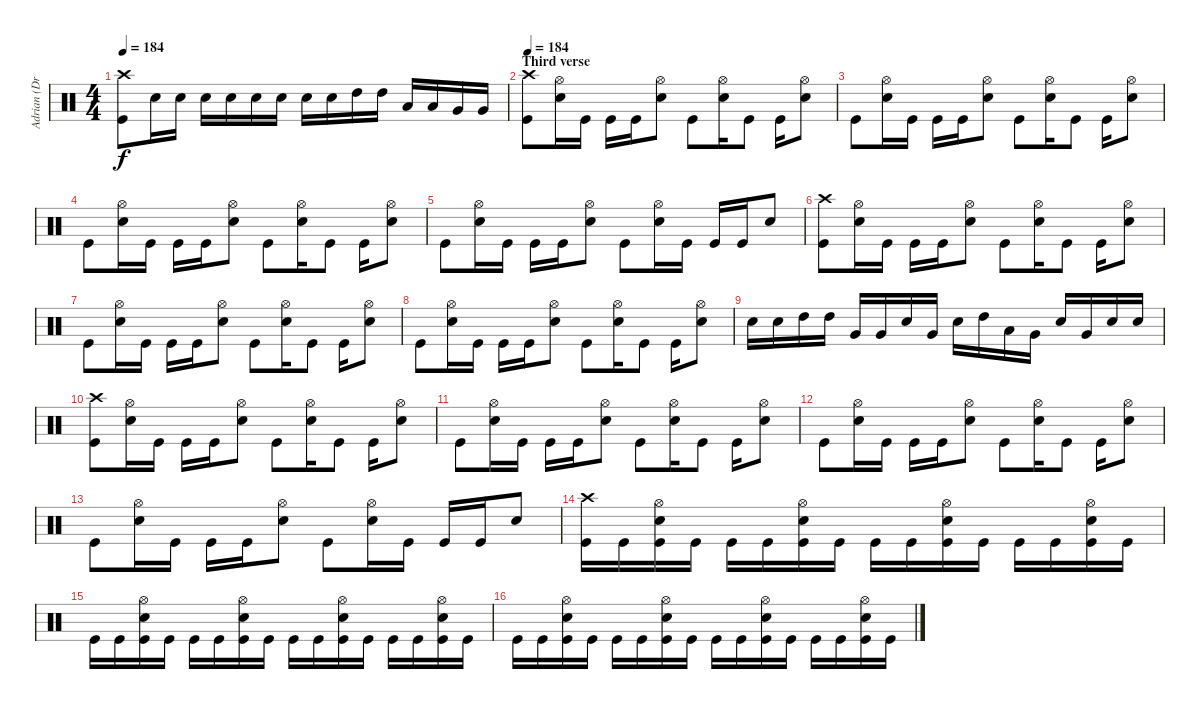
\track ("Adrian (Drums)" "Adrian (Dr") {instrument percussion}
\staff {score}
\articulation defaults
\ts (4 4)
\tempo 184
\clef neutral
\ks c
("Crash high (hit)" "Kick (hit)").8{dy f} "Electric Snare (hit)".16 "Electric Snare (hit)".16 "Electric Snare (hit)".16 "Electric Snare (hit)".16 "Electric Snare (hit)".16 "Electric Snare (hit)".16 "Electric Snare (hit)".16 "Electric Snare (hit)".16 "High Tom (hit)".16 "High Tom (hit)".16 "Low Tom (hit)".16 "Low Tom (hit)".16 "Very Low Tom (hit)".16 "Very Low Tom (hit)".16 |
\section ("" "Third verse")
\tempo 184
("Crash high (hit)" "Kick (hit)").8 ("Hi-Hat (open)" "Electric Snare (hit)").16 "Kick (hit)".16 "Kick (hit)".16 "Kick (hit)".16 ("Hi-Hat (open)" "Electric Snare (hit)").8 "Kick (hit)".8 ("Hi-Hat (open)" "Electric Snare (hit)").16 "Kick (hit)".8 "Kick (hit)".16 ("Hi-Hat (open)" "Electric Snare (hit)").8 |
"Kick (hit)".8 ("Hi-Hat (open)" "Electric Snare (hit)").16 "Kick (hit)".16 "Kick (hit)".16 "Kick (hit)".16 ("Hi-Hat (open)" "Electric Snare (hit)").8 "Kick (hit)".8 ("Hi-Hat (open)" "Electric Snare (hit)").16 "Kick (hit)".8 "Kick (hit)".16 ("Hi-Hat (open)" "Electric Snare (hit)").8 |
"Kick (hit)".8 ("Hi-Hat (open)" "Electric Snare (hit)").16 "Kick (hit)".16 "Kick (hit)".16 "Kick (hit)".16 ("Hi-Hat (open)" "Electric Snare (hit)").8 "Kick (hit)".8 ("Hi-Hat (open)" "Electric Snare (hit)").16 "Kick (hit)".8 "Kick (hit)".16 ("Hi-Hat (open)" "Electric Snare (hit)").8 |
"Kick (hit)".8 ("Hi-Hat (open)" "Electric Snare (hit)").16 "Kick (hit)".16 "Kick (hit)".16 "Kick (hit)".16 ("Hi-Hat (open)" "Electric Snare (hit)").8 "Kick (hit)".8 ("Hi-Hat (open)" "Electric Snare (hit)").16 "Kick (hit)".16 "Kick (hit)".16 "Kick (hit)".16 "Electric Snare (hit)".8 |
("Crash high (hit)" "Kick (hit)").8 ("Hi-Hat (open)" "Electric Snare (hit)").16 "Kick (hit)".16 "Kick (hit)".16 "Kick (hit)".16 ("Hi-Hat (open)" "Electric Snare (hit)").8 "Kick (hit)".8 ("Hi-Hat (open)" "Electric Snare (hit)").16 "Kick (hit)".8 "Kick (hit)".16 ("Hi-Hat (open)" "Electric Snare (hit)").8 |
"Kick (hit)".8 ("Hi-Hat (open)" "Electric Snare (hit)").16 "Kick (hit)".16 "Kick (hit)".16 "Kick (hit)".16 ("Hi-Hat (open)" "Electric Snare (hit)").8 "Kick (hit)".8 ("Hi-Hat (open)" "Electric Snare (hit)").16 "Kick (hit)".8 "Kick (hit)".16 ("Hi-Hat (open)" "Electric Snare (hit)").8 |
"Kick (hit)".8 ("Hi-Hat (open)" "Electric Snare (hit)").16 "Kick (hit)".16 "Kick (hit)".16 "Kick (hit)".16 ("Hi-Hat (open)" "Electric Snare (hit)").8 "Kick (hit)".8 ("Hi-Hat (open)" "Electric Snare (hit)").16 "Kick (hit)".8 "Kick (hit)".16 ("Hi-Hat (open)" "Electric Snare (hit)").8 |
"Electric Snare (hit)".16 "Electric Snare (hit)".16 "High Tom (hit)".16 "High Tom (hit)".16 "Very Low Tom (hit)".16 "Very Low Tom (hit)".16 "Electric Snare (hit)".16 "Very Low Tom (hit)".16 "Electric Snare (hit)".16 "High Tom (hit)".16 "Low Tom (hit)".16 "Very Low Tom (hit)".16 "Electric Snare (hit)".16 "Very Low Tom (hit)".16 "Electric Snare (hit)".16 "Electric Snare (hit)".16 |
("Crash high (hit)" "Kick (hit)").8 ("Hi-Hat (open)" "Electric Snare (hit)").16 "Kick (hit)".16 "Kick (hit)".16 "Kick (hit)".16 ("Hi-Hat (open)" "Electric Snare (hit)").8 "Kick (hit)".8 ("Hi-Hat (open)" "Electric Snare (hit)").16 "Kick (hit)".8 "Kick (hit)".16 ("Hi-Hat (open)" "Electric Snare (hit)").8 |
"Kick (hit)".8 ("Hi-Hat (open)" "Electric Snare (hit)").16 "Kick (hit)".16 "Kick (hit)".16 "Kick (hit)".16 ("Hi-Hat (open)" "Electric Snare (hit)").8 "Kick (hit)".8 ("Hi-Hat (open)" "Electric Snare (hit)").16 "Kick (hit)".8 "Kick (hit)".16 ("Hi-Hat (open)" "Electric Snare (hit)").8 |
"Kick (hit)".8 ("Hi-Hat (open)" "Electric Snare (hit)").16 "Kick (hit)".16 "Kick (hit)".16 "Kick (hit)".16 ("Hi-Hat (open)" "Electric Snare (hit)").8 "Kick (hit)".8 ("Hi-Hat (open)" "Electric Snare (hit)").16 "Kick (hit)".8 "Kick (hit)".16 ("Hi-Hat (open)" "Electric Snare (hit)").8 |
"Kick (hit)".8 ("Hi-Hat (open)" "Electric Snare (hit)").16 "Kick (hit)".16 "Kick (hit)".16 "Kick (hit)".16 ("Hi-Hat (open)" "Electric Snare (hit)").8 "Kick (hit)".8 ("Hi-Hat (open)" "Electric Snare (hit)").16 "Kick (hit)".16 "Kick (hit)".16 "Kick (hit)".16 "Electric Snare (hit)".8 |
("Crash high (hit)" "Kick (hit)").16 "Kick (hit)".16 ("Hi-Hat (open)" "Electric Snare (hit)" "Kick (hit)").16 "Kick (hit)".16 "Kick (hit)".16 "Kick (hit)".16 ("Hi-Hat (open)" "Electric Snare (hit)" "Kick (hit)").16 "Kick (hit)".16 "Kick (hit)".16 "Kick (hit)".16 ("Hi-Hat (open)" "Electric Snare (hit)" "Kick (hit)").16 "Kick (hit)".16 "Kick (hit)".16 "Kick (hit)".16 ("Hi-Hat (open)" "Electric Snare (hit)" "Kick (hit)").16 "Kick (hit)".16 |
"Kick (hit)".16 "Kick (hit)".16 ("Hi-Hat (open)" "Electric Snare (hit)" "Kick (hit)").16 "Kick (hit)".16 "Kick (hit)".16 "Kick (hit)".16 ("Hi-Hat (open)" "Electric Snare (hit)" "Kick (hit)").16 "Kick (hit)".16 "Kick (hit)".16 "Kick (hit)".16 ("Hi-Hat (open)" "Electric Snare (hit)" "Kick (hit)").16 "Kick (hit)".16 "Kick (hit)".16 "Kick (hit)".16 ("Hi-Hat (open)" "Electric Snare (hit)" "Kick (hit)").16 "Kick (hit)".16 |
"Kick (hit)".16 "Kick (hit)".16 ("Hi-Hat (open)" "Electric Snare (hit)" "Kick (hit)").16 "Kick (hit)".16 "Kick (hit)".16 "Kick (hit)".16 ("Hi-Hat (open)" "Electric Snare (hit)" "Kick (hit)").16 "Kick (hit)".16 "Kick (hit)".16 "Kick (hit)".16 ("Hi-Hat (open)" "Electric Snare (hit)" "Kick (hit)").16 "Kick (hit)".16 "Kick (hit)".16 "Kick (hit)".16 ("Hi-Hat (open)" "Electric Snare (hit)" "Kick (hit)").16 "Kick (hit)".16
